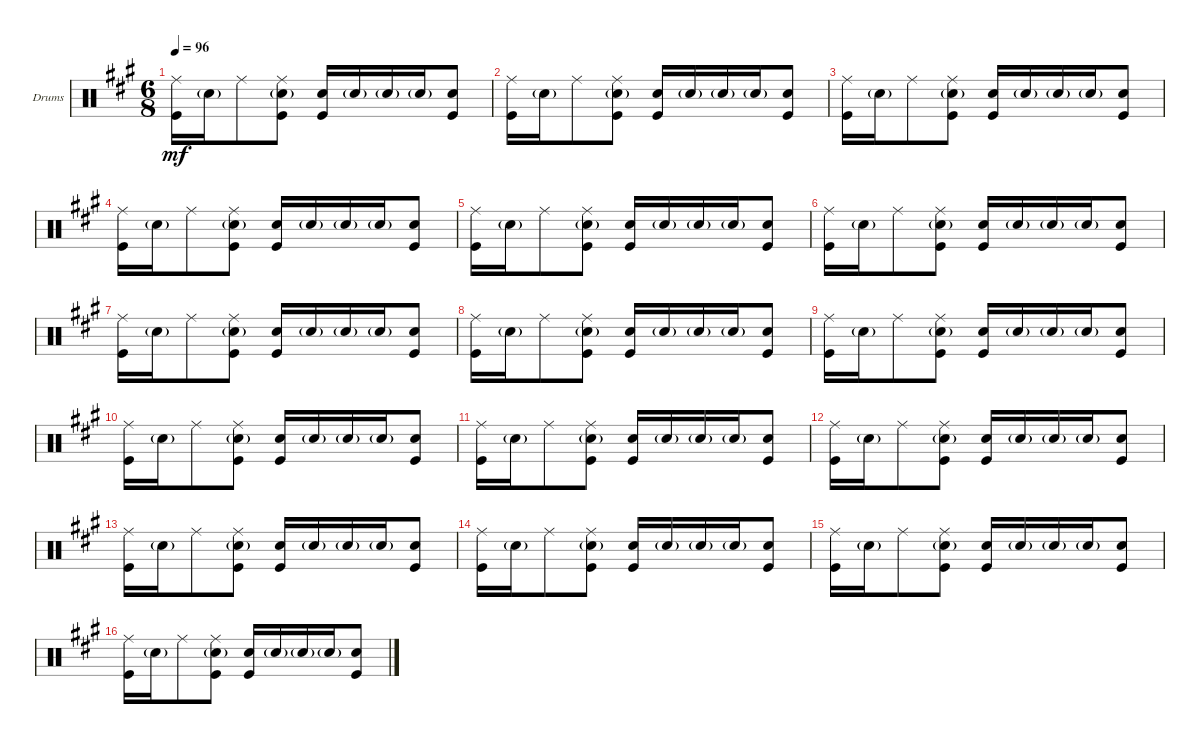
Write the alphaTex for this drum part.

\bracketExtendMode groupsimilarinstruments
\firstSystemTrackNameOrientation horizontal
\otherSystemsTrackNameOrientation horizontal
\track ("Drumkit" "Drums") {instrument percussion}
\staff {score}
\articulation defaults
\ts (6 8)
\tempo 96
\clef neutral
\scale
0.333333
\ks a
("Ride (middle)" "Kick (hit)").16{dy mf} "Snare (hit) 2"{g}.16 "Ride (middle)".8 ("Snare (hit) 2"{g} "Ride (middle)" "Kick (hit)").8 ("Snare (hit) 2" "Kick (hit)").16 "Snare (hit) 2"{g}.16 "Snare (hit) 2"{g}.16 "Snare (hit) 2"{g}.16 ("Snare (hit) 2" "Kick (hit)").8 |
\scale
0.333333 ("Ride (middle)" "Kick (hit)").16 "Snare (hit) 2"{g}.16 "Ride (middle)".8 ("Snare (hit) 2"{g} "Ride (middle)" "Kick (hit)").8 ("Snare (hit) 2" "Kick (hit)").16 "Snare (hit) 2"{g}.16 "Snare (hit) 2"{g}.16 "Snare (hit) 2"{g}.16 ("Snare (hit) 2" "Kick (hit)").8 |
\scale
0.333333 ("Ride (middle)" "Kick (hit)").16 "Snare (hit) 2"{g}.16 "Ride (middle)".8 ("Snare (hit) 2"{g} "Ride (middle)" "Kick (hit)").8 ("Snare (hit) 2" "Kick (hit)").16 "Snare (hit) 2"{g}.16 "Snare (hit) 2"{g}.16 "Snare (hit) 2"{g}.16 ("Snare (hit) 2" "Kick (hit)").8 |
\scale
0.333333 ("Ride (middle)" "Kick (hit)").16 "Snare (hit) 2"{g}.16 "Ride (middle)".8 ("Snare (hit) 2"{g} "Ride (middle)" "Kick (hit)").8 ("Snare (hit) 2" "Kick (hit)").16 "Snare (hit) 2"{g}.16 "Snare (hit) 2"{g}.16 "Snare (hit) 2"{g}.16 ("Snare (hit) 2" "Kick (hit)").8 |
\scale
0.333333 ("Ride (middle)" "Kick (hit)").16 "Snare (hit) 2"{g}.16 "Ride (middle)".8 ("Snare (hit) 2"{g} "Ride (middle)" "Kick (hit)").8 ("Snare (hit) 2" "Kick (hit)").16 "Snare (hit) 2"{g}.16 "Snare (hit) 2"{g}.16 "Snare (hit) 2"{g}.16 ("Snare (hit) 2" "Kick (hit)").8 |
\scale
0.333333 ("Ride (middle)" "Kick (hit)").16 "Snare (hit) 2"{g}.16 "Ride (middle)".8 ("Snare (hit) 2"{g} "Ride (middle)" "Kick (hit)").8 ("Snare (hit) 2" "Kick (hit)").16 "Snare (hit) 2"{g}.16 "Snare (hit) 2"{g}.16 "Snare (hit) 2"{g}.16 ("Snare (hit) 2" "Kick (hit)").8 |
\scale
0.333333 ("Ride (middle)" "Kick (hit)").16 "Snare (hit) 2"{g}.16 "Ride (middle)".8 ("Snare (hit) 2"{g} "Ride (middle)" "Kick (hit)").8 ("Snare (hit) 2" "Kick (hit)").16 "Snare (hit) 2"{g}.16 "Snare (hit) 2"{g}.16 "Snare (hit) 2"{g}.16 ("Snare (hit) 2" "Kick (hit)").8 |
\scale
0.333333 ("Ride (middle)" "Kick (hit)").16 "Snare (hit) 2"{g}.16 "Ride (middle)".8 ("Snare (hit) 2"{g} "Ride (middle)" "Kick (hit)").8 ("Snare (hit) 2" "Kick (hit)").16 "Snare (hit) 2"{g}.16 "Snare (hit) 2"{g}.16 "Snare (hit) 2"{g}.16 ("Snare (hit) 2" "Kick (hit)").8 |
\scale
0.333333 ("Ride (middle)" "Kick (hit)").16 "Snare (hit) 2"{g}.16 "Ride (middle)".8 ("Snare (hit) 2"{g} "Ride (middle)" "Kick (hit)").8 ("Snare (hit) 2" "Kick (hit)").16 "Snare (hit) 2"{g}.16 "Snare (hit) 2"{g}.16 "Snare (hit) 2"{g}.16 ("Snare (hit) 2" "Kick (hit)").8 |
\scale
0.333333 ("Ride (middle)" "Kick (hit)").16 "Snare (hit) 2"{g}.16 "Ride (middle)".8 ("Snare (hit) 2"{g} "Ride (middle)" "Kick (hit)").8 ("Snare (hit) 2" "Kick (hit)").16 "Snare (hit) 2"{g}.16 "Snare (hit) 2"{g}.16 "Snare (hit) 2"{g}.16 ("Snare (hit) 2" "Kick (hit)").8 |
\scale
0.333333 ("Ride (middle)" "Kick (hit)").16 "Snare (hit) 2"{g}.16 "Ride (middle)".8 ("Snare (hit) 2"{g} "Ride (middle)" "Kick (hit)").8 ("Snare (hit) 2" "Kick (hit)").16 "Snare (hit) 2"{g}.16 "Snare (hit) 2"{g}.16 "Snare (hit) 2"{g}.16 ("Snare (hit) 2" "Kick (hit)").8 |
\scale
0.333333 ("Ride (middle)" "Kick (hit)").16 "Snare (hit) 2"{g}.16 "Ride (middle)".8 ("Snare (hit) 2"{g} "Ride (middle)" "Kick (hit)").8 ("Snare (hit) 2" "Kick (hit)").16 "Snare (hit) 2"{g}.16 "Snare (hit) 2"{g}.16 "Snare (hit) 2"{g}.16 ("Snare (hit) 2" "Kick (hit)").8 |
\scale
0.333333 ("Ride (middle)" "Kick (hit)").16 "Snare (hit) 2"{g}.16 "Ride (middle)".8 ("Snare (hit) 2"{g} "Ride (middle)" "Kick (hit)").8 ("Snare (hit) 2" "Kick (hit)").16 "Snare (hit) 2"{g}.16 "Snare (hit) 2"{g}.16 "Snare (hit) 2"{g}.16 ("Snare (hit) 2" "Kick (hit)").8 |
\scale
0.333333 ("Ride (middle)" "Kick (hit)").16 "Snare (hit) 2"{g}.16 "Ride (middle)".8 ("Snare (hit) 2"{g} "Ride (middle)" "Kick (hit)").8 ("Snare (hit) 2" "Kick (hit)").16 "Snare (hit) 2"{g}.16 "Snare (hit) 2"{g}.16 "Snare (hit) 2"{g}.16 ("Snare (hit) 2" "Kick (hit)").8 |
\scale
0.333333 ("Ride (middle)" "Kick (hit)").16 "Snare (hit) 2"{g}.16 "Ride (middle)".8 ("Snare (hit) 2"{g} "Ride (middle)" "Kick (hit)").8 ("Snare (hit) 2" "Kick (hit)").16 "Snare (hit) 2"{g}.16 "Snare (hit) 2"{g}.16 "Snare (hit) 2"{g}.16 ("Snare (hit) 2" "Kick (hit)").8 |
\scale
0.333333 ("Ride (middle)" "Kick (hit)").16 "Snare (hit) 2"{g}.16 "Ride (middle)".8 ("Snare (hit) 2"{g} "Ride (middle)" "Kick (hit)").8 ("Snare (hit) 2" "Kick (hit)").16 "Snare (hit) 2"{g}.16 "Snare (hit) 2"{g}.16 "Snare (hit) 2"{g}.16 ("Snare (hit) 2" "Kick (hit)").8
